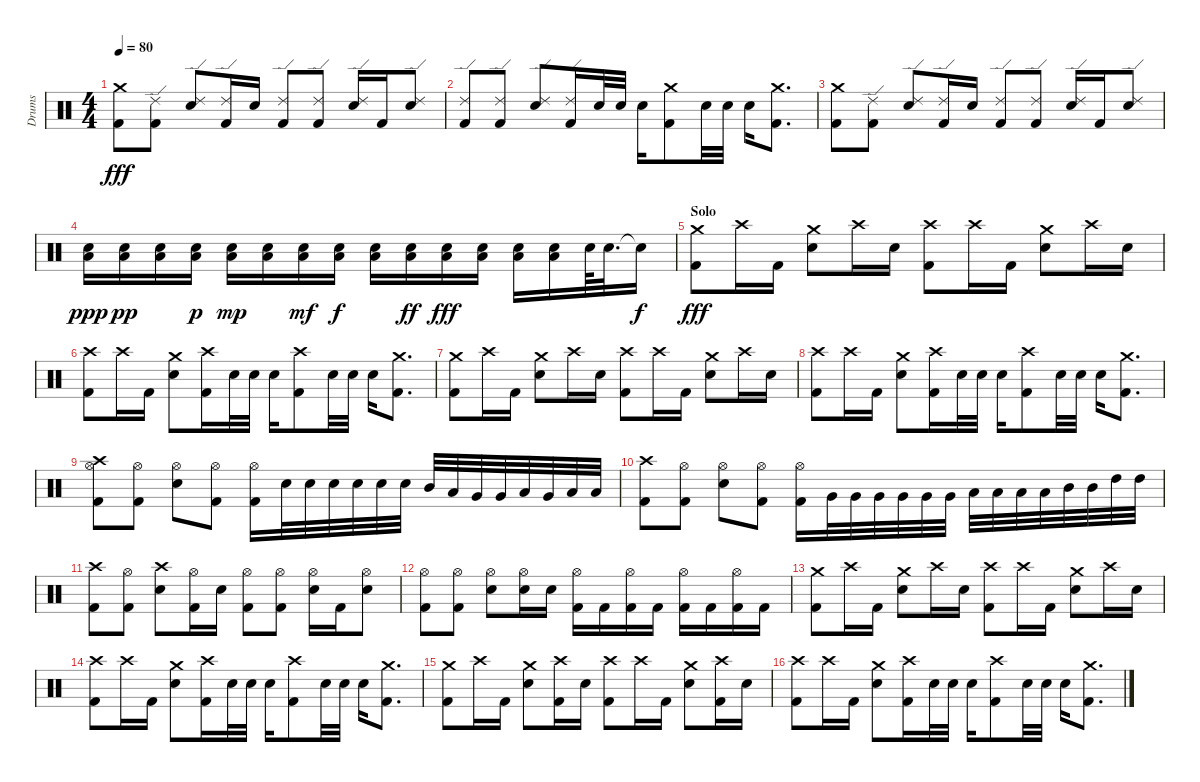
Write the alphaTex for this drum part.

\track ("Drums" "Drums") {instrument percussion}
\staff {score}
\articulation defaults
\ts (4 4)
\tempo 80
\clef neutral
\ks c
("Crash medium (hit)" "Kick (hit) 2").8{dy fff} ("Ride (edge) 2" "Kick (hit) 2").8 ("Ride (edge) 2" "Snare (hit) 2").8 ("Ride (edge) 2" "Kick (hit) 2").16 "Snare (hit) 2".16 ("Ride (edge) 2" "Kick (hit) 2").8 ("Ride (edge) 2" "Kick (hit) 2").8 ("Ride (edge) 2" "Snare (hit) 2").16 "Kick (hit) 2".16 ("Ride (edge) 2" "Snare (hit) 2").8 |
("Ride (edge) 2" "Kick (hit) 2").8 ("Ride (edge) 2" "Kick (hit) 2").8 ("Ride (edge) 2" "Snare (hit) 2").8 ("Ride (edge) 2" "Kick (hit) 2").16 "Snare (hit) 2".32 "Snare (hit) 2".32 "Snare (hit) 2".16 ("Crash medium (hit)" "Kick (hit) 2").8 "Snare (hit) 2".32 "Snare (hit) 2".32 "Snare (hit) 2".16 ("Crash medium (hit)" "Kick (hit) 2").8{d} |
("Crash medium (hit)" "Kick (hit) 2").8 ("Ride (edge) 2" "Kick (hit) 2").8 ("Ride (edge) 2" "Snare (hit) 2").8 ("Ride (edge) 2" "Kick (hit) 2").16 "Snare (hit) 2".16 ("Ride (edge) 2" "Kick (hit) 2").8 ("Ride (edge) 2" "Kick (hit) 2").8 ("Ride (edge) 2" "Snare (hit) 2").16 "Kick (hit) 2".16 ("Ride (edge) 2" "Snare (hit) 2").8 |
("Low Tom (hit)" "Snare (hit) 2").16{dy ppp} ("Low Tom (hit)" "Snare (hit) 2").16{dy pp} ("Low Tom (hit)" "Snare (hit) 2").16 ("Low Tom (hit)" "Snare (hit) 2").16{dy p} ("Low Tom (hit)" "Snare (hit) 2").16{dy mp} ("Low Tom (hit)" "Snare (hit) 2").16 ("Low Tom (hit)" "Snare (hit) 2").16{dy mf} ("Low Tom (hit)" "Snare (hit) 2").16{dy f} ("Low Tom (hit)" "Snare (hit) 2").16 ("Low Tom (hit)" "Snare (hit) 2").16{dy ff} ("Low Tom (hit)" "Snare (hit) 2").16{dy fff} ("Low Tom (hit)" "Snare (hit) 2").16 ("Low Tom (hit)" "Snare (hit) 2").16 ("Low Tom (hit)" "Snare (hit) 2").16 "Snare (hit) 2".64 "Snare (hit) 2".32{d} "Snare (hit)"{t}.16{dy f} |
\section ("" "Solo")
("Crash medium (hit)" "Kick (hit) 2").8{dy fff} "Crash high (hit)".16 "Kick (hit) 2".16 ("Crash medium (hit)" "Snare (hit) 2").8 "Crash high (hit)".16 "Snare (hit) 2".16 ("Crash high (hit)" "Kick (hit) 2").8 "Crash high (hit)".16 "Kick (hit) 2".16 ("Crash medium (hit)" "Snare (hit) 2").8 "Crash high (hit)".16 "Snare (hit) 2".16 |
("Crash high (hit)" "Kick (hit) 2").8 "Crash high (hit)".16 "Kick (hit) 2".16 ("Crash medium (hit)" "Snare (hit) 2").8 ("Crash high (hit)" "Kick (hit) 2").16 "Snare (hit) 2".32 "Snare (hit) 2".32 "Snare (hit) 2".16 ("Crash high (hit)" "Kick (hit) 2").8 "Snare (hit) 2".32 "Snare (hit) 2".32 "Snare (hit) 2".16 ("Crash medium (hit)" "Kick (hit) 2").8{d} |
("Crash medium (hit)" "Kick (hit) 2").8 "Crash high (hit)".16 "Kick (hit) 2".16 ("Crash medium (hit)" "Snare (hit) 2").8 "Crash high (hit)".16 "Snare (hit) 2".16 ("Crash high (hit)" "Kick (hit) 2").8 "Crash high (hit)".16 "Kick (hit) 2".16 ("Crash medium (hit)" "Snare (hit) 2").8 "Crash high (hit)".16 "Snare (hit) 2".16 |
("Crash high (hit)" "Kick (hit) 2").8 "Crash high (hit)".16 "Kick (hit) 2".16 ("Crash medium (hit)" "Snare (hit) 2").8 ("Crash high (hit)" "Kick (hit) 2").16 "Snare (hit) 2".32 "Snare (hit) 2".32 "Snare (hit) 2".16 ("Crash high (hit)" "Kick (hit) 2").8 "Snare (hit) 2".32 "Snare (hit) 2".32 "Snare (hit) 2".16 ("Crash medium (hit)" "Kick (hit) 2").8{d} |
("Hi-Hat (open)" "Crash high (hit)" "Kick (hit) 2").8 ("Hi-Hat (open)" "Kick (hit) 2").8 ("Hi-Hat (open)" "Snare (hit) 2").8 ("Hi-Hat (open)" "Kick (hit) 2").8 ("Hi-Hat (open)" "Kick (hit) 2").16 "Snare (hit) 2".32 "Snare (hit) 2".32 "Snare (hit) 2".32 "Snare (hit) 2".32 "Snare (hit) 2".32 "Snare (hit) 2".32 "Mid Tom (hit)".32 "Low Tom (hit)".32 "Very Low Tom (hit)".32 "Very Low Tom (hit)".32 "Low Tom (hit)".32 "Very Low Tom (hit)".32 "Low Floor Tom (hit)".32 "Low Floor Tom (hit)".32 |
("Crash high (hit)" "Kick (hit) 2").8 ("Hi-Hat (open)" "Kick (hit) 2").8 ("Hi-Hat (open)" "Snare (hit) 2").8 ("Hi-Hat (open)" "Kick (hit) 2").8 ("Hi-Hat (open)" "Kick (hit) 2").16 "Very Low Tom (hit)".32 "Very Low Tom (hit)".32 "Very Low Tom (hit)".32 "Very Low Tom (hit)".32 "Very Low Tom (hit)".32 "Very Low Tom (hit)".32 "Low Tom (hit)".32 "Low Tom (hit)".32 "Low Tom (hit)".32 "Low Tom (hit)".32 "Mid Tom (hit)".32 "Mid Tom (hit)".32 "High Tom (hit)".32 "High Tom (hit)".32 |
("Crash high (hit)" "Kick (hit) 2").8 ("Hi-Hat (open)" "Kick (hit) 2").8 ("Crash high (hit)" "Snare (hit) 2").8 ("Hi-Hat (open)" "Kick (hit) 2").16 "Snare (hit) 2".16 ("Hi-Hat (open)" "Kick (hit) 2").8 ("Hi-Hat (open)" "Kick (hit) 2").8 ("Hi-Hat (open)" "Snare (hit) 2").16 "Kick (hit) 2".16 ("Hi-Hat (open)" "Snare (hit) 2").8 |
("Hi-Hat (open)" "Kick (hit) 2").8 ("Hi-Hat (open)" "Kick (hit) 2").8 ("Hi-Hat (open)" "Snare (hit) 2").8 ("Hi-Hat (open)" "Snare (hit) 2").16 "Snare (hit) 2".16 ("Hi-Hat (open)" "Kick (hit) 2").16 "Kick (hit) 2".16 ("Hi-Hat (open)" "Kick (hit) 2").16 "Kick (hit) 2".16 ("Hi-Hat (open)" "Kick (hit) 2").16 "Kick (hit) 2".16 ("Hi-Hat (open)" "Kick (hit) 2").16 "Kick (hit) 2".16 |
("Crash medium (hit)" "Kick (hit) 2").8 "Crash high (hit)".16 "Kick (hit) 2".16 ("Crash medium (hit)" "Snare (hit) 2").8 "Crash high (hit)".16 "Snare (hit) 2".16 ("Crash high (hit)" "Kick (hit) 2").8 "Crash high (hit)".16 "Kick (hit) 2".16 ("Crash medium (hit)" "Snare (hit) 2").8 "Crash high (hit)".16 "Snare (hit) 2".16 |
("Crash high (hit)" "Kick (hit) 2").8 "Crash high (hit)".16 "Kick (hit) 2".16 ("Crash medium (hit)" "Snare (hit) 2").8 ("Crash high (hit)" "Kick (hit) 2").16 "Snare (hit) 2".32 "Snare (hit) 2".32 "Snare (hit) 2".16 ("Crash high (hit)" "Kick (hit) 2").8 "Snare (hit) 2".32 "Snare (hit) 2".32 "Snare (hit) 2".16 ("Crash medium (hit)" "Kick (hit) 2").8{d} |
("Crash medium (hit)" "Kick (hit) 2").8 "Crash high (hit)".16 "Kick (hit) 2".16 ("Crash medium (hit)" "Snare (hit) 2").8 ("Crash high (hit)" "Kick (hit) 2").16 "Snare (hit) 2".16 ("Crash high (hit)" "Kick (hit) 2").8 "Crash high (hit)".16 "Kick (hit) 2".16 ("Crash medium (hit)" "Snare (hit) 2").8 ("Crash high (hit)" "Kick (hit) 2").16 "Snare (hit) 2".16 |
("Crash high (hit)" "Kick (hit) 2").8 "Crash high (hit)".16 "Kick (hit) 2".16 ("Crash medium (hit)" "Snare (hit) 2").8 ("Crash high (hit)" "Kick (hit) 2").16 "Snare (hit) 2".32 "Snare (hit) 2".32 "Snare (hit) 2".16 ("Crash high (hit)" "Kick (hit) 2").8 "Snare (hit) 2".32 "Snare (hit) 2".32 "Snare (hit) 2".16 ("Crash medium (hit)" "Kick (hit) 2").8{d}
